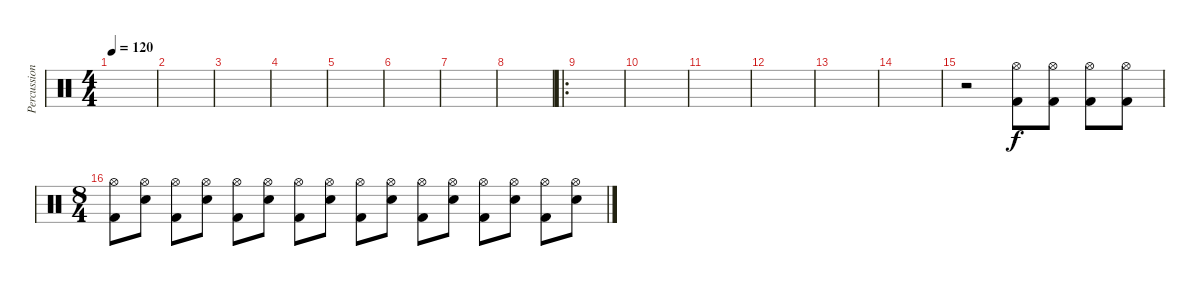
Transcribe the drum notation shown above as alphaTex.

\track ("Percussions" "Percussion") {instrument percussion}
\staff {score}
\articulation defaults
\ts (4 4)
\tempo 120
\clef neutral
\ks c
|
|
|
|
|
|
|
|
\ro
|
|
|
|
|
|
r.2 ("Kick (hit) 2" "Hi-Hat (open)").8 ("Kick (hit) 2" "Hi-Hat (open)").8 ("Kick (hit) 2" "Hi-Hat (open)").8 ("Kick (hit) 2" "Hi-Hat (open)").8 |
\ts (8 4)
("Kick (hit) 2" "Hi-Hat (open)").8 ("Electric Snare (hit)" "Hi-Hat (open)").8 ("Kick (hit) 2" "Hi-Hat (open)").8 ("Electric Snare (hit)" "Hi-Hat (open)").8 ("Kick (hit) 2" "Hi-Hat (open)").8 ("Electric Snare (hit)" "Hi-Hat (open)").8 ("Kick (hit) 2" "Hi-Hat (open)").8 ("Electric Snare (hit)" "Hi-Hat (open)").8 ("Kick (hit) 2" "Hi-Hat (open)").8 ("Electric Snare (hit)" "Hi-Hat (open)").8 ("Kick (hit) 2" "Hi-Hat (open)").8 ("Electric Snare (hit)" "Hi-Hat (open)").8 ("Kick (hit) 2" "Hi-Hat (open)").8 ("Electric Snare (hit)" "Hi-Hat (open)").8 ("Kick (hit) 2" "Hi-Hat (open)").8 ("Electric Snare (hit)" "Hi-Hat (open)").8
